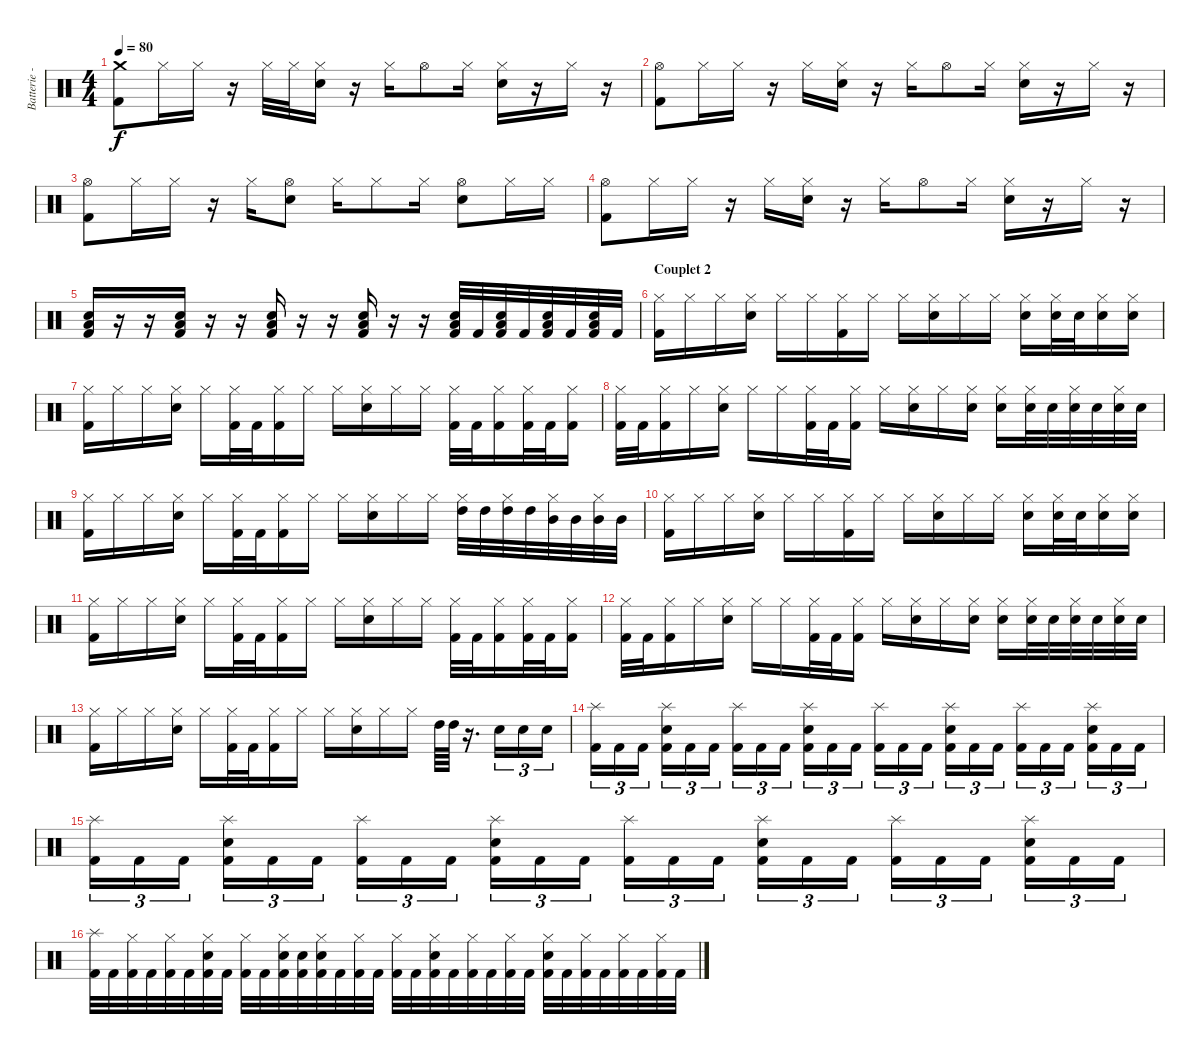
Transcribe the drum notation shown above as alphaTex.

\track ("Batterie - François" "Batterie -") {instrument percussion}
\staff {score}
\articulation defaults
\ts (4 4)
\tempo 80
\clef neutral
\ks c
("Crash medium (hit)" "Kick (hit) 2").8{dy f} "Hi-Hat (closed)".16 "Hi-Hat (closed)".16 r.16 "Hi-Hat (closed)".32 "Hi-Hat (closed)".32 ("Hi-Hat (closed)" "Electric Snare (hit)").16 r.16 "Hi-Hat (closed)".16 "Hi-Hat (open)".8 "Hi-Hat (closed)".16 ("Hi-Hat (closed)" "Electric Snare (hit)").16 r.16 "Hi-Hat (closed)".16 r.16 |
("Hi-Hat (open)" "Kick (hit) 2").8 "Hi-Hat (closed)".16 "Hi-Hat (closed)".16 r.16 "Hi-Hat (closed)".16 ("Hi-Hat (closed)" "Electric Snare (hit)").16 r.16 "Hi-Hat (closed)".16 "Hi-Hat (open)".8 "Hi-Hat (closed)".16 ("Hi-Hat (closed)" "Electric Snare (hit)").16 r.16 "Hi-Hat (closed)".16 r.16 |
("Hi-Hat (open)" "Kick (hit) 2").8 "Hi-Hat (closed)".16 "Hi-Hat (closed)".16 r.16 "Hi-Hat (closed)".16 ("Hi-Hat (open)" "Electric Snare (hit)").8 "Hi-Hat (closed)".16 "Hi-Hat (closed)".8 "Hi-Hat (closed)".16 ("Hi-Hat (open)" "Electric Snare (hit)").8 "Hi-Hat (closed)".16 "Hi-Hat (closed)".16 |
("Hi-Hat (open)" "Kick (hit) 2").8 "Hi-Hat (closed)".16 "Hi-Hat (closed)".16 r.16 "Hi-Hat (closed)".16 ("Hi-Hat (closed)" "Electric Snare (hit)").16 r.16 "Hi-Hat (closed)".16 "Hi-Hat (open)".8 "Hi-Hat (closed)".16 ("Hi-Hat (closed)" "Electric Snare (hit)").16 r.16 "Hi-Hat (closed)".16 r.16 |
("Electric Snare (hit)" "Low Tom (hit)" "Kick (hit) 2").16 r.16 r.16 ("Electric Snare (hit)" "Low Tom (hit)" "Kick (hit) 2").16 r.16 r.16 ("Electric Snare (hit)" "Low Tom (hit)" "Kick (hit) 2").16 r.16 r.16 ("Electric Snare (hit)" "Low Tom (hit)" "Kick (hit) 2").16 r.16 r.16 ("Electric Snare (hit)" "Low Tom (hit)" "Kick (hit) 2").32 "Kick (hit) 2".32 ("Electric Snare (hit)" "Low Tom (hit)" "Kick (hit) 2").32 "Kick (hit) 2".32 ("Electric Snare (hit)" "Low Tom (hit)" "Kick (hit) 2").32 "Kick (hit) 2".32 ("Electric Snare (hit)" "Low Tom (hit)" "Kick (hit) 2").32 "Kick (hit) 2".32 |
\section ("" "Couplet 2")
("Hi-Hat (closed)" "Kick (hit) 2").16 "Hi-Hat (closed)".16 "Hi-Hat (closed)".16 ("Hi-Hat (closed)" "Electric Snare (hit)").16 "Hi-Hat (closed)".16 "Hi-Hat (closed)".16 ("Hi-Hat (closed)" "Kick (hit) 2").16 "Hi-Hat (closed)".16 "Hi-Hat (closed)".16 ("Hi-Hat (closed)" "Electric Snare (hit)").16 "Hi-Hat (closed)".16 "Hi-Hat (closed)".16 ("Hi-Hat (closed)" "Electric Snare (hit)").16 ("Hi-Hat (closed)" "Electric Snare (hit)").32 "Electric Snare (hit)".32 ("Hi-Hat (closed)" "Electric Snare (hit)").16 ("Hi-Hat (closed)" "Electric Snare (hit)").16 |
("Hi-Hat (closed)" "Kick (hit) 2").16 "Hi-Hat (closed)".16 "Hi-Hat (closed)".16 ("Hi-Hat (closed)" "Electric Snare (hit)").16 "Hi-Hat (closed)".16 ("Hi-Hat (closed)" "Kick (hit) 2").32 "Kick (hit) 2".32 ("Hi-Hat (closed)" "Kick (hit) 2").16 "Hi-Hat (closed)".16 "Hi-Hat (closed)".16 ("Hi-Hat (closed)" "Electric Snare (hit)").16 "Hi-Hat (closed)".16 "Hi-Hat (closed)".16 ("Hi-Hat (closed)" "Kick (hit) 2").32 "Kick (hit) 2".32 ("Hi-Hat (closed)" "Kick (hit) 2").16 ("Hi-Hat (closed)" "Kick (hit) 2").32 "Kick (hit) 2".32 ("Hi-Hat (closed)" "Kick (hit) 2").16 |
("Hi-Hat (closed)" "Kick (hit) 2").32 "Kick (hit) 2".32 ("Hi-Hat (closed)" "Kick (hit) 2").16 "Hi-Hat (closed)".16 ("Hi-Hat (closed)" "Electric Snare (hit)").16 "Hi-Hat (closed)".16 "Hi-Hat (closed)".16 ("Hi-Hat (closed)" "Kick (hit) 2").32 "Kick (hit) 2".32 ("Hi-Hat (closed)" "Kick (hit) 2").16 "Hi-Hat (closed)".16 ("Hi-Hat (closed)" "Electric Snare (hit)").16 "Hi-Hat (closed)".16 ("Hi-Hat (closed)" "Electric Snare (hit)").16 ("Hi-Hat (closed)" "Electric Snare (hit)").16 ("Hi-Hat (closed)" "Electric Snare (hit)").32 "Electric Snare (hit)".32 ("Hi-Hat (closed)" "Electric Snare (hit)").32 "Electric Snare (hit)".32 ("Hi-Hat (closed)" "Electric Snare (hit)").32 "Electric Snare (hit)".32 |
("Hi-Hat (closed)" "Kick (hit) 2").16 "Hi-Hat (closed)".16 "Hi-Hat (closed)".16 ("Hi-Hat (closed)" "Electric Snare (hit)").16 "Hi-Hat (closed)".16 ("Hi-Hat (closed)" "Kick (hit) 2").32 "Kick (hit) 2".32 ("Hi-Hat (closed)" "Kick (hit) 2").16 "Hi-Hat (closed)".16 "Hi-Hat (closed)".16 ("Hi-Hat (closed)" "Electric Snare (hit)").16 "Hi-Hat (closed)".16 "Hi-Hat (closed)".16 ("Hi-Hat (closed)" "High Tom (hit)").32 "High Tom (hit)".32 ("Hi-Hat (closed)" "High Tom (hit)").32 "High Tom (hit)".32 ("Hi-Hat (closed)" "Mid Tom (hit)").32 "Mid Tom (hit)".32 ("Hi-Hat (closed)" "Mid Tom (hit)").32 "Mid Tom (hit)".32 |
("Hi-Hat (closed)" "Kick (hit) 2").16 "Hi-Hat (closed)".16 "Hi-Hat (closed)".16 ("Hi-Hat (closed)" "Electric Snare (hit)").16 "Hi-Hat (closed)".16 "Hi-Hat (closed)".16 ("Hi-Hat (closed)" "Kick (hit) 2").16 "Hi-Hat (closed)".16 "Hi-Hat (closed)".16 ("Hi-Hat (closed)" "Electric Snare (hit)").16 "Hi-Hat (closed)".16 "Hi-Hat (closed)".16 ("Hi-Hat (closed)" "Electric Snare (hit)").16 ("Hi-Hat (closed)" "Electric Snare (hit)").32 "Electric Snare (hit)".32 ("Hi-Hat (closed)" "Electric Snare (hit)").16 ("Hi-Hat (closed)" "Electric Snare (hit)").16 |
("Hi-Hat (closed)" "Kick (hit) 2").16 "Hi-Hat (closed)".16 "Hi-Hat (closed)".16 ("Hi-Hat (closed)" "Electric Snare (hit)").16 "Hi-Hat (closed)".16 ("Hi-Hat (closed)" "Kick (hit) 2").32 "Kick (hit) 2".32 ("Hi-Hat (closed)" "Kick (hit) 2").16 "Hi-Hat (closed)".16 "Hi-Hat (closed)".16 ("Hi-Hat (closed)" "Electric Snare (hit)").16 "Hi-Hat (closed)".16 "Hi-Hat (closed)".16 ("Hi-Hat (closed)" "Kick (hit) 2").32 "Kick (hit) 2".32 ("Hi-Hat (closed)" "Kick (hit) 2").16 ("Hi-Hat (closed)" "Kick (hit) 2").32 "Kick (hit) 2".32 ("Hi-Hat (closed)" "Kick (hit) 2").16 |
("Hi-Hat (closed)" "Kick (hit) 2").32 "Kick (hit) 2".32 ("Hi-Hat (closed)" "Kick (hit) 2").16 "Hi-Hat (closed)".16 ("Hi-Hat (closed)" "Electric Snare (hit)").16 "Hi-Hat (closed)".16 "Hi-Hat (closed)".16 ("Hi-Hat (closed)" "Kick (hit) 2").32 "Kick (hit) 2".32 ("Hi-Hat (closed)" "Kick (hit) 2").16 "Hi-Hat (closed)".16 ("Hi-Hat (closed)" "Electric Snare (hit)").16 "Hi-Hat (closed)".16 ("Hi-Hat (closed)" "Electric Snare (hit)").16 ("Hi-Hat (closed)" "Electric Snare (hit)").16 ("Hi-Hat (closed)" "Electric Snare (hit)").32 "Electric Snare (hit)".32 ("Hi-Hat (closed)" "Electric Snare (hit)").32 "Electric Snare (hit)".32 ("Hi-Hat (closed)" "Electric Snare (hit)").32 "Electric Snare (hit)".32 |
("Hi-Hat (closed)" "Kick (hit) 2").16 "Hi-Hat (closed)".16 "Hi-Hat (closed)".16 ("Hi-Hat (closed)" "Electric Snare (hit)").16 "Hi-Hat (closed)".16 ("Hi-Hat (closed)" "Kick (hit) 2").32 "Kick (hit) 2".32 ("Hi-Hat (closed)" "Kick (hit) 2").16 "Hi-Hat (closed)".16 "Hi-Hat (closed)".16 ("Hi-Hat (closed)" "Electric Snare (hit)").16 "Hi-Hat (closed)".16 "Hi-Hat (closed)".16 "High Tom (hit)".64 "High Tom (hit)".64 r.16{d} "Electric Snare (hit)".16{tu (3 2)} "Electric Snare (hit)".16{tu (3 2)} "Electric Snare (hit)".16{tu (3 2)} |
("Splash (hit)" "Kick (hit) 2").16{tu (3 2)} "Kick (hit) 2".16{tu (3 2)} "Kick (hit) 2".16{tu (3 2)} ("Splash (hit)" "Electric Snare (hit)" "Kick (hit) 2").16{tu (3 2)} "Kick (hit) 2".16{tu (3 2)} "Kick (hit) 2".16{tu (3 2)} ("Splash (hit)" "Kick (hit) 2").16{tu (3 2)} "Kick (hit) 2".16{tu (3 2)} "Kick (hit) 2".16{tu (3 2)} ("Splash (hit)" "Electric Snare (hit)" "Kick (hit) 2").16{tu (3 2)} "Kick (hit) 2".16{tu (3 2)} "Kick (hit) 2".16{tu (3 2)} ("Splash (hit)" "Kick (hit) 2").16{tu (3 2)} "Kick (hit) 2".16{tu (3 2)} "Kick (hit) 2".16{tu (3 2)} ("Splash (hit)" "Electric Snare (hit)" "Kick (hit) 2").16{tu (3 2)} "Kick (hit) 2".16{tu (3 2)} "Kick (hit) 2".16{tu (3 2)} ("Splash (hit)" "Kick (hit) 2").16{tu (3 2)} "Kick (hit) 2".16{tu (3 2)} "Kick (hit) 2".16{tu (3 2)} ("Splash (hit)" "Electric Snare (hit)" "Kick (hit) 2").16{tu (3 2)} "Kick (hit) 2".16{tu (3 2)} "Kick (hit) 2".16{tu (3 2)} |
("Splash (hit)" "Kick (hit) 2").16{tu (3 2)} "Kick (hit) 2".16{tu (3 2)} "Kick (hit) 2".16{tu (3 2)} ("Splash (hit)" "Electric Snare (hit)" "Kick (hit) 2").16{tu (3 2)} "Kick (hit) 2".16{tu (3 2)} "Kick (hit) 2".16{tu (3 2)} ("Splash (hit)" "Kick (hit) 2").16{tu (3 2)} "Kick (hit) 2".16{tu (3 2)} "Kick (hit) 2".16{tu (3 2)} ("Splash (hit)" "Electric Snare (hit)" "Kick (hit) 2").16{tu (3 2)} "Kick (hit) 2".16{tu (3 2)} "Kick (hit) 2".16{tu (3 2)} ("Splash (hit)" "Kick (hit) 2").16{tu (3 2)} "Kick (hit) 2".16{tu (3 2)} "Kick (hit) 2".16{tu (3 2)} ("Splash (hit)" "Electric Snare (hit)" "Kick (hit) 2").16{tu (3 2)} "Kick (hit) 2".16{tu (3 2)} "Kick (hit) 2".16{tu (3 2)} ("Splash (hit)" "Kick (hit) 2").16{tu (3 2)} "Kick (hit) 2".16{tu (3 2)} "Kick (hit) 2".16{tu (3 2)} ("Splash (hit)" "Electric Snare (hit)" "Kick (hit) 2").16{tu (3 2)} "Kick (hit) 2".16{tu (3 2)} "Kick (hit) 2".16{tu (3 2)} |
("Splash (hit)" "Kick (hit) 2").32 "Kick (hit) 2".32 ("Hi-Hat (closed)" "Kick (hit) 2").32 "Kick (hit) 2".32 ("Hi-Hat (closed)" "Kick (hit) 2").32 "Kick (hit) 2".32 ("Hi-Hat (closed)" "Electric Snare (hit)" "Kick (hit) 2").32 "Kick (hit) 2".32 ("Hi-Hat (closed)" "Kick (hit) 2").32 "Kick (hit) 2".32 ("Hi-Hat (closed)" "Electric Snare (hit)" "Kick (hit) 2").32 ("Electric Snare (hit)" "Kick (hit) 2").32 ("Hi-Hat (closed)" "Electric Snare (hit)" "Kick (hit) 2").32 "Kick (hit) 2".32 ("Hi-Hat (closed)" "Kick (hit) 2").32 "Kick (hit) 2".32 ("Hi-Hat (closed)" "Kick (hit) 2").32 "Kick (hit) 2".32 ("Hi-Hat (closed)" "Electric Snare (hit)" "Kick (hit) 2").32 "Kick (hit) 2".32 ("Hi-Hat (closed)" "Kick (hit) 2").32 "Kick (hit) 2".32 ("Hi-Hat (closed)" "Kick (hit) 2").32 "Kick (hit) 2".32 ("Hi-Hat (closed)" "Electric Snare (hit)" "Kick (hit) 2").32 "Kick (hit) 2".32 ("Hi-Hat (closed)" "Kick (hit) 2").32 "Kick (hit) 2".32 ("Hi-Hat (closed)" "Kick (hit) 2").32 "Kick (hit) 2".32 ("Hi-Hat (closed)" "Kick (hit) 2").32 "Kick (hit) 2".32
